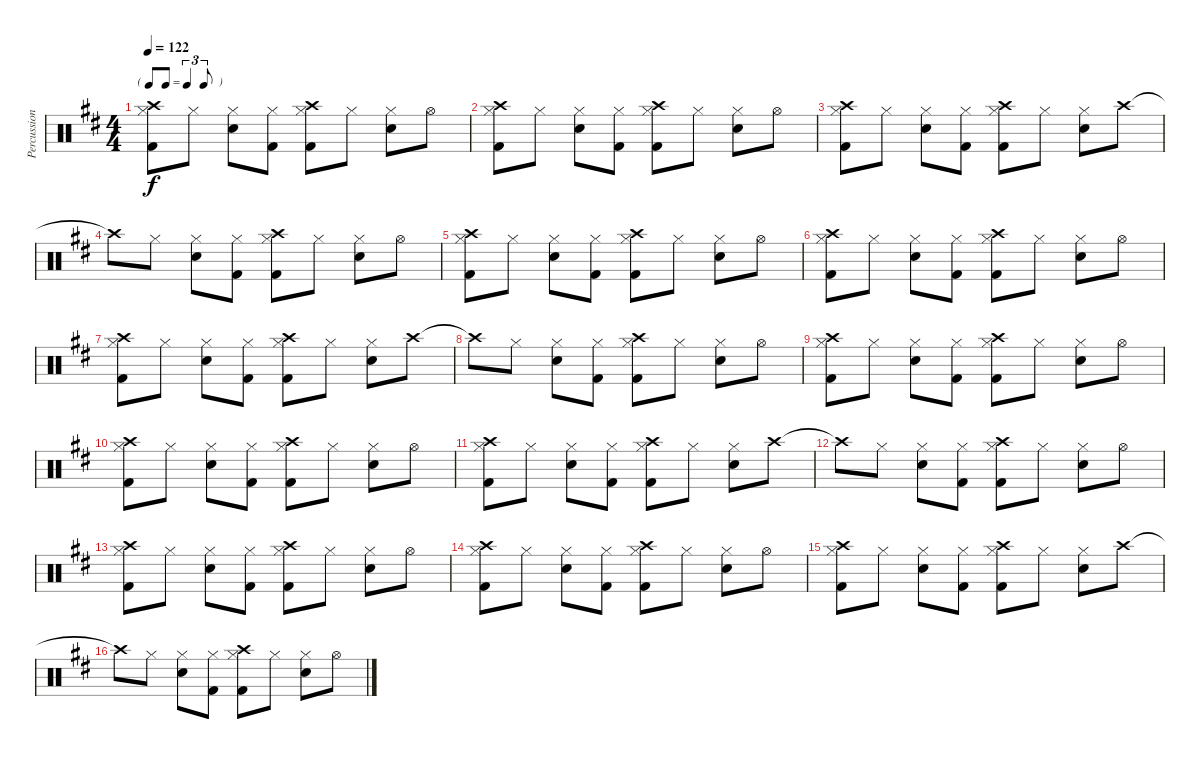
\track ("Percussioni" "Percussion") {instrument percussion}
\staff {score}
\articulation defaults
\ts (4 4)
\tf triplet8th
\tempo 122
\clef neutral
\ks d
("Hi-Hat (closed)" "Kick (hit) 2" "Crash high (hit)").8{dy f} "Hi-Hat (closed)".8 ("Hi-Hat (closed)" "Electric Snare (hit)").8 ("Hi-Hat (closed)" "Kick (hit) 2").8 ("Hi-Hat (closed)" "Kick (hit) 2" "Crash high (hit)").8 "Hi-Hat (closed)".8 ("Hi-Hat (closed)" "Electric Snare (hit)").8 "Hi-Hat (open)".8 |
("Hi-Hat (closed)" "Kick (hit) 2" "Crash high (hit)").8 "Hi-Hat (closed)".8 ("Hi-Hat (closed)" "Electric Snare (hit)").8 ("Hi-Hat (closed)" "Kick (hit) 2").8 ("Hi-Hat (closed)" "Kick (hit) 2" "Crash high (hit)").8 "Hi-Hat (closed)".8 ("Hi-Hat (closed)" "Electric Snare (hit)").8 "Hi-Hat (open)".8 |
("Hi-Hat (closed)" "Kick (hit) 2" "Crash high (hit)").8 "Hi-Hat (closed)".8 ("Hi-Hat (closed)" "Electric Snare (hit)").8 ("Hi-Hat (closed)" "Kick (hit) 2").8 ("Hi-Hat (closed)" "Kick (hit) 2" "Crash high (hit)").8 "Hi-Hat (closed)".8 ("Hi-Hat (closed)" "Electric Snare (hit)").8 "Crash high (hit)".8 |
"Crash high (hit)"{t}.8 "Hi-Hat (closed)".8 ("Hi-Hat (closed)" "Electric Snare (hit)").8 ("Hi-Hat (closed)" "Kick (hit) 2").8 ("Hi-Hat (closed)" "Kick (hit) 2" "Crash high (hit)").8 "Hi-Hat (closed)".8 ("Hi-Hat (closed)" "Electric Snare (hit)").8 "Hi-Hat (open)".8 |
("Hi-Hat (closed)" "Kick (hit) 2" "Crash high (hit)").8 "Hi-Hat (closed)".8 ("Hi-Hat (closed)" "Electric Snare (hit)").8 ("Hi-Hat (closed)" "Kick (hit) 2").8 ("Hi-Hat (closed)" "Kick (hit) 2" "Crash high (hit)").8 "Hi-Hat (closed)".8 ("Hi-Hat (closed)" "Electric Snare (hit)").8 "Hi-Hat (open)".8 |
("Hi-Hat (closed)" "Kick (hit) 2" "Crash high (hit)").8 "Hi-Hat (closed)".8 ("Hi-Hat (closed)" "Electric Snare (hit)").8 ("Hi-Hat (closed)" "Kick (hit) 2").8 ("Hi-Hat (closed)" "Kick (hit) 2" "Crash high (hit)").8 "Hi-Hat (closed)".8 ("Hi-Hat (closed)" "Electric Snare (hit)").8 "Hi-Hat (open)".8 |
("Hi-Hat (closed)" "Kick (hit) 2" "Crash high (hit)").8 "Hi-Hat (closed)".8 ("Hi-Hat (closed)" "Electric Snare (hit)").8 ("Hi-Hat (closed)" "Kick (hit) 2").8 ("Hi-Hat (closed)" "Kick (hit) 2" "Crash high (hit)").8 "Hi-Hat (closed)".8 ("Hi-Hat (closed)" "Electric Snare (hit)").8 "Crash high (hit)".8 |
"Crash high (hit)"{t}.8 "Hi-Hat (closed)".8 ("Hi-Hat (closed)" "Electric Snare (hit)").8 ("Hi-Hat (closed)" "Kick (hit) 2").8 ("Hi-Hat (closed)" "Kick (hit) 2" "Crash high (hit)").8 "Hi-Hat (closed)".8 ("Hi-Hat (closed)" "Electric Snare (hit)").8 "Hi-Hat (open)".8 |
("Hi-Hat (closed)" "Kick (hit) 2" "Crash high (hit)").8 "Hi-Hat (closed)".8 ("Hi-Hat (closed)" "Electric Snare (hit)").8 ("Hi-Hat (closed)" "Kick (hit) 2").8 ("Hi-Hat (closed)" "Kick (hit) 2" "Crash high (hit)").8 "Hi-Hat (closed)".8 ("Hi-Hat (closed)" "Electric Snare (hit)").8 "Hi-Hat (open)".8 |
("Hi-Hat (closed)" "Kick (hit) 2" "Crash high (hit)").8 "Hi-Hat (closed)".8 ("Hi-Hat (closed)" "Electric Snare (hit)").8 ("Hi-Hat (closed)" "Kick (hit) 2").8 ("Hi-Hat (closed)" "Kick (hit) 2" "Crash high (hit)").8 "Hi-Hat (closed)".8 ("Hi-Hat (closed)" "Electric Snare (hit)").8 "Hi-Hat (open)".8 |
("Hi-Hat (closed)" "Kick (hit) 2" "Crash high (hit)").8 "Hi-Hat (closed)".8 ("Hi-Hat (closed)" "Electric Snare (hit)").8 ("Hi-Hat (closed)" "Kick (hit) 2").8 ("Hi-Hat (closed)" "Kick (hit) 2" "Crash high (hit)").8 "Hi-Hat (closed)".8 ("Hi-Hat (closed)" "Electric Snare (hit)").8 "Crash high (hit)".8 |
"Crash high (hit)"{t}.8 "Hi-Hat (closed)".8 ("Hi-Hat (closed)" "Electric Snare (hit)").8 ("Hi-Hat (closed)" "Kick (hit) 2").8 ("Hi-Hat (closed)" "Kick (hit) 2" "Crash high (hit)").8 "Hi-Hat (closed)".8 ("Hi-Hat (closed)" "Electric Snare (hit)").8 "Hi-Hat (open)".8 |
("Hi-Hat (closed)" "Kick (hit) 2" "Crash high (hit)").8 "Hi-Hat (closed)".8 ("Hi-Hat (closed)" "Electric Snare (hit)").8 ("Hi-Hat (closed)" "Kick (hit) 2").8 ("Hi-Hat (closed)" "Kick (hit) 2" "Crash high (hit)").8 "Hi-Hat (closed)".8 ("Hi-Hat (closed)" "Electric Snare (hit)").8 "Hi-Hat (open)".8 |
("Hi-Hat (closed)" "Kick (hit) 2" "Crash high (hit)").8 "Hi-Hat (closed)".8 ("Hi-Hat (closed)" "Electric Snare (hit)").8 ("Hi-Hat (closed)" "Kick (hit) 2").8 ("Hi-Hat (closed)" "Kick (hit) 2" "Crash high (hit)").8 "Hi-Hat (closed)".8 ("Hi-Hat (closed)" "Electric Snare (hit)").8 "Hi-Hat (open)".8 |
("Hi-Hat (closed)" "Kick (hit) 2" "Crash high (hit)").8 "Hi-Hat (closed)".8 ("Hi-Hat (closed)" "Electric Snare (hit)").8 ("Hi-Hat (closed)" "Kick (hit) 2").8 ("Hi-Hat (closed)" "Kick (hit) 2" "Crash high (hit)").8 "Hi-Hat (closed)".8 ("Hi-Hat (closed)" "Electric Snare (hit)").8 "Crash high (hit)".8 |
"Crash high (hit)"{t}.8 "Hi-Hat (closed)".8 ("Hi-Hat (closed)" "Electric Snare (hit)").8 ("Hi-Hat (closed)" "Kick (hit) 2").8 ("Hi-Hat (closed)" "Kick (hit) 2" "Crash high (hit)").8 "Hi-Hat (closed)".8 ("Hi-Hat (closed)" "Electric Snare (hit)").8 "Hi-Hat (open)".8
